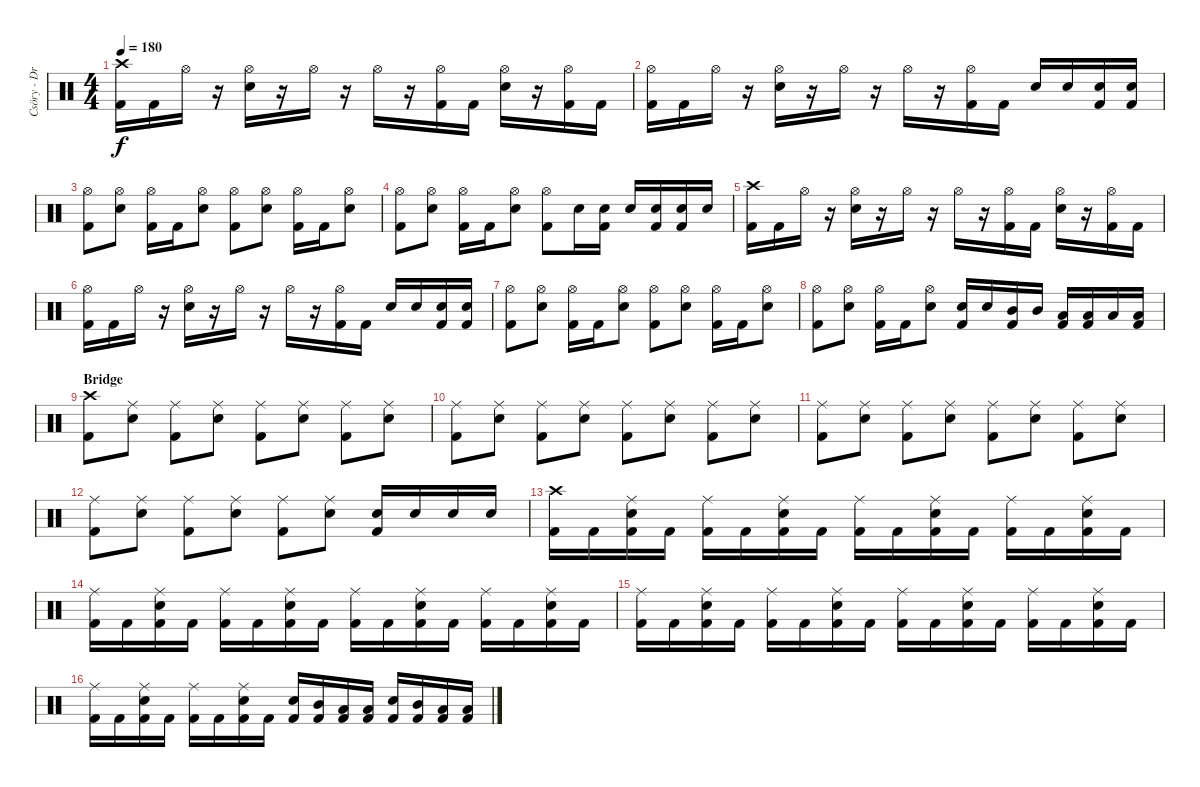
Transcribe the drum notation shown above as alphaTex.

\track ("Csöry - DrumZ" "Csöry - Dr") {instrument percussion}
\staff {score}
\articulation defaults
\ts (4 4)
\tempo 180
\clef neutral
\ks c
("Crash high (hit)" "Kick (hit) 2").16{dy f} "Kick (hit) 2".16 "Hi-Hat (open)".16 r.16 ("Hi-Hat (open)" "Snare (hit) 2").16 r.16 "Hi-Hat (open)".16 r.16 "Hi-Hat (open)".16 r.16 ("Hi-Hat (open)" "Kick (hit) 2").16 "Kick (hit) 2".16 ("Hi-Hat (open)" "Snare (hit) 2").16 r.16 ("Hi-Hat (open)" "Kick (hit) 2").16 "Kick (hit) 2".16 |
("Hi-Hat (open)" "Kick (hit) 2").16 "Kick (hit) 2".16 "Hi-Hat (open)".16 r.16 ("Hi-Hat (open)" "Snare (hit) 2").16 r.16 "Hi-Hat (open)".16 r.16 "Hi-Hat (open)".16 r.16 ("Hi-Hat (open)" "Kick (hit) 2").16 "Kick (hit) 2".16 "Snare (hit) 2".16 "Snare (hit) 2".16 ("Snare (hit) 2" "Kick (hit) 2").16 ("Snare (hit) 2" "Kick (hit) 2").16 |
("Hi-Hat (open)" "Kick (hit) 2").8 ("Hi-Hat (open)" "Snare (hit) 2").8 ("Hi-Hat (open)" "Kick (hit) 2").16 "Kick (hit) 2".16 ("Hi-Hat (open)" "Snare (hit) 2").8 ("Hi-Hat (open)" "Kick (hit) 2").8 ("Hi-Hat (open)" "Snare (hit) 2").8 ("Hi-Hat (open)" "Kick (hit) 2").16 "Kick (hit) 2".16 ("Hi-Hat (open)" "Snare (hit) 2").8 |
("Hi-Hat (open)" "Kick (hit) 2").8 ("Hi-Hat (open)" "Snare (hit) 2").8 ("Hi-Hat (open)" "Kick (hit) 2").16 "Kick (hit) 2".16 ("Hi-Hat (open)" "Snare (hit) 2").8 ("Hi-Hat (open)" "Kick (hit) 2").8 "Snare (hit) 2".16 ("Snare (hit) 2" "Kick (hit) 2").16 "Snare (hit) 2".16 ("Snare (hit) 2" "Kick (hit) 2").16 ("Snare (hit) 2" "Kick (hit) 2").16 "Snare (hit) 2".16 |
("Crash high (hit)" "Kick (hit) 2").16 "Kick (hit) 2".16 "Hi-Hat (open)".16 r.16 ("Hi-Hat (open)" "Snare (hit) 2").16 r.16 "Hi-Hat (open)".16 r.16 "Hi-Hat (open)".16 r.16 ("Hi-Hat (open)" "Kick (hit) 2").16 "Kick (hit) 2".16 ("Hi-Hat (open)" "Snare (hit) 2").16 r.16 ("Hi-Hat (open)" "Kick (hit) 2").16 "Kick (hit) 2".16 |
("Hi-Hat (open)" "Kick (hit) 2").16 "Kick (hit) 2".16 "Hi-Hat (open)".16 r.16 ("Hi-Hat (open)" "Snare (hit) 2").16 r.16 "Hi-Hat (open)".16 r.16 "Hi-Hat (open)".16 r.16 ("Hi-Hat (open)" "Kick (hit) 2").16 "Kick (hit) 2".16 "Snare (hit) 2".16 "Snare (hit) 2".16 ("Snare (hit) 2" "Kick (hit) 2").16 ("Snare (hit) 2" "Kick (hit) 2").16 |
("Hi-Hat (open)" "Kick (hit) 2").8 ("Hi-Hat (open)" "Snare (hit) 2").8 ("Hi-Hat (open)" "Kick (hit) 2").16 "Kick (hit) 2".16 ("Hi-Hat (open)" "Snare (hit) 2").8 ("Hi-Hat (open)" "Kick (hit) 2").8 ("Hi-Hat (open)" "Snare (hit) 2").8 ("Hi-Hat (open)" "Kick (hit) 2").16 "Kick (hit) 2".16 ("Hi-Hat (open)" "Snare (hit) 2").8 |
("Hi-Hat (open)" "Kick (hit) 2").8 ("Hi-Hat (open)" "Snare (hit) 2").8 ("Hi-Hat (open)" "Kick (hit) 2").16 "Kick (hit) 2".16 ("Hi-Hat (open)" "Snare (hit) 2").8 ("Snare (hit) 2" "Kick (hit) 2").16 "Snare (hit) 2".16 ("Mid Tom (hit)" "Kick (hit) 2").16 "Mid Tom (hit)".16 ("Low Tom (hit)" "Kick (hit) 2").16 ("Low Tom (hit)" "Kick (hit) 2").16 "Low Floor Tom (hit)".16 ("Low Floor Tom (hit)" "Kick (hit) 2").16 |
\section ("" "Bridge")
("Crash high (hit)" "Kick (hit) 2").8 ("Ride (middle)" "Snare (hit) 2").8 ("Ride (middle)" "Kick (hit) 2").8 ("Ride (middle)" "Snare (hit) 2").8 ("Ride (middle)" "Kick (hit) 2").8 ("Ride (middle)" "Snare (hit) 2").8 ("Ride (middle)" "Kick (hit) 2").8 ("Ride (middle)" "Snare (hit) 2").8 |
("Ride (middle)" "Kick (hit) 2").8 ("Ride (middle)" "Snare (hit) 2").8 ("Ride (middle)" "Kick (hit) 2").8 ("Ride (middle)" "Snare (hit) 2").8 ("Ride (middle)" "Kick (hit) 2").8 ("Ride (middle)" "Snare (hit) 2").8 ("Ride (middle)" "Kick (hit) 2").8 ("Ride (middle)" "Snare (hit) 2").8 |
("Ride (middle)" "Kick (hit) 2").8 ("Ride (middle)" "Snare (hit) 2").8 ("Ride (middle)" "Kick (hit) 2").8 ("Ride (middle)" "Snare (hit) 2").8 ("Ride (middle)" "Kick (hit) 2").8 ("Ride (middle)" "Snare (hit) 2").8 ("Ride (middle)" "Kick (hit) 2").8 ("Ride (middle)" "Snare (hit) 2").8 |
("Ride (middle)" "Kick (hit) 2").8 ("Ride (middle)" "Snare (hit) 2").8 ("Ride (middle)" "Kick (hit) 2").8 ("Ride (middle)" "Snare (hit) 2").8 ("Ride (middle)" "Kick (hit) 2").8 ("Ride (middle)" "Snare (hit) 2").8 ("Snare (hit) 2" "Kick (hit) 2").16 "Snare (hit) 2".16 "Snare (hit) 2".16 "Snare (hit) 2".16 |
("Crash high (hit)" "Kick (hit) 2").16 "Kick (hit) 2".16 ("Ride (middle)" "Snare (hit) 2" "Kick (hit) 2").16 "Kick (hit) 2".16 ("Ride (middle)" "Kick (hit) 2").16 "Kick (hit) 2".16 ("Ride (middle)" "Snare (hit) 2" "Kick (hit) 2").16 "Kick (hit) 2".16 ("Ride (middle)" "Kick (hit) 2").16 "Kick (hit) 2".16 ("Ride (middle)" "Snare (hit) 2" "Kick (hit) 2").16 "Kick (hit) 2".16 ("Ride (middle)" "Kick (hit) 2").16 "Kick (hit) 2".16 ("Ride (middle)" "Snare (hit) 2" "Kick (hit) 2").16 "Kick (hit) 2".16 |
("Ride (middle)" "Kick (hit) 2").16 "Kick (hit) 2".16 ("Ride (middle)" "Snare (hit) 2" "Kick (hit) 2").16 "Kick (hit) 2".16 ("Ride (middle)" "Kick (hit) 2").16 "Kick (hit) 2".16 ("Ride (middle)" "Snare (hit) 2" "Kick (hit) 2").16 "Kick (hit) 2".16 ("Ride (middle)" "Kick (hit) 2").16 "Kick (hit) 2".16 ("Ride (middle)" "Snare (hit) 2" "Kick (hit) 2").16 "Kick (hit) 2".16 ("Ride (middle)" "Kick (hit) 2").16 "Kick (hit) 2".16 ("Ride (middle)" "Snare (hit) 2" "Kick (hit) 2").16 "Kick (hit) 2".16 |
("Ride (middle)" "Kick (hit) 2").16 "Kick (hit) 2".16 ("Ride (middle)" "Snare (hit) 2" "Kick (hit) 2").16 "Kick (hit) 2".16 ("Ride (middle)" "Kick (hit) 2").16 "Kick (hit) 2".16 ("Ride (middle)" "Snare (hit) 2" "Kick (hit) 2").16 "Kick (hit) 2".16 ("Ride (middle)" "Kick (hit) 2").16 "Kick (hit) 2".16 ("Ride (middle)" "Snare (hit) 2" "Kick (hit) 2").16 "Kick (hit) 2".16 ("Ride (middle)" "Kick (hit) 2").16 "Kick (hit) 2".16 ("Ride (middle)" "Snare (hit) 2" "Kick (hit) 2").16 "Kick (hit) 2".16 |
("Ride (middle)" "Kick (hit) 2").16 "Kick (hit) 2".16 ("Ride (middle)" "Snare (hit) 2" "Kick (hit) 2").16 "Kick (hit) 2".16 ("Ride (middle)" "Kick (hit) 2").16 "Kick (hit) 2".16 ("Ride (middle)" "Snare (hit) 2" "Kick (hit) 2").16 "Kick (hit) 2".16 ("Snare (hit) 2" "Kick (hit) 2").16 ("Mid Tom (hit)" "Kick (hit) 2").16 ("Low Tom (hit)" "Kick (hit) 2").16 ("Low Floor Tom (hit)" "Kick (hit) 2").16 ("Snare (hit) 2" "Kick (hit) 2").16 ("Mid Tom (hit)" "Kick (hit) 2").16 ("Low Tom (hit)" "Kick (hit) 2").16 ("Low Floor Tom (hit)" "Kick (hit) 2").16
